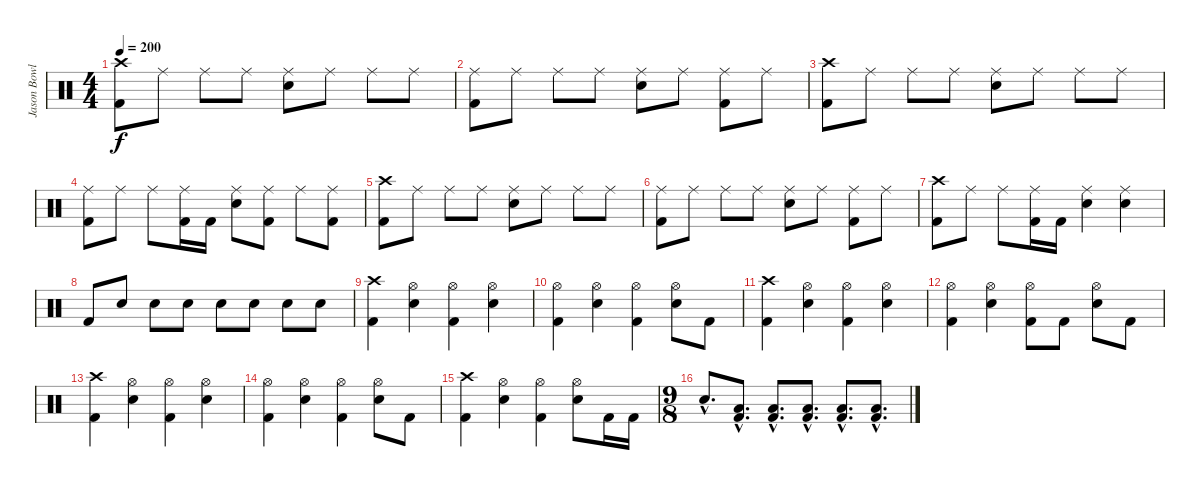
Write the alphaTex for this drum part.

\track ("Jason Bowld" "Jason Bowl") {instrument percussion}
\staff {score}
\articulation defaults
\ts (4 4)
\tempo 200
\clef neutral
\ks c
("Crash high (hit)" "Kick (hit) 2").8{dy f} "Ride (middle)".8 "Ride (middle)".8 "Ride (middle)".8 ("Ride (middle)" "Snare (hit) 2").8 "Ride (middle)".8 "Ride (middle)".8 "Ride (middle)".8 |
("Ride (middle)" "Kick (hit) 2").8 "Ride (middle)".8 "Ride (middle)".8 "Ride (middle)".8 ("Ride (middle)" "Snare (hit) 2").8 "Ride (middle)".8 ("Ride (middle)" "Kick (hit) 2").8 "Ride (middle)".8 |
("Crash high (hit)" "Kick (hit) 2").8 "Ride (middle)".8 "Ride (middle)".8 "Ride (middle)".8 ("Ride (middle)" "Snare (hit) 2").8 "Ride (middle)".8 "Ride (middle)".8 "Ride (middle)".8 |
("Ride (middle)" "Kick (hit) 2").8 "Ride (middle)".8 "Ride (middle)".8 ("Ride (middle)" "Kick (hit) 2").16 "Kick (hit) 2".16 ("Ride (middle)" "Snare (hit) 2").8 ("Ride (middle)" "Kick (hit) 2").8 "Ride (middle)".8 ("Ride (middle)" "Kick (hit) 2").8 |
("Crash high (hit)" "Kick (hit) 2").8 "Ride (middle)".8 "Ride (middle)".8 "Ride (middle)".8 ("Ride (middle)" "Snare (hit) 2").8 "Ride (middle)".8 "Ride (middle)".8 "Ride (middle)".8 |
("Ride (middle)" "Kick (hit) 2").8 "Ride (middle)".8 "Ride (middle)".8 "Ride (middle)".8 ("Ride (middle)" "Snare (hit) 2").8 "Ride (middle)".8 ("Ride (middle)" "Kick (hit) 2").8 "Ride (middle)".8 |
("Crash high (hit)" "Kick (hit) 2").8 "Ride (middle)".8 "Ride (middle)".8 ("Ride (middle)" "Kick (hit) 2").16 "Kick (hit) 2".16 ("Ride (middle)" "Snare (hit) 2").4 ("Ride (middle)" "Snare (hit) 2").4 |
"Kick (hit) 2".8 "Snare (hit) 2".8 "Snare (hit) 2".8 "Snare (hit) 2".8 "Snare (hit) 2".8 "Snare (hit) 2".8 "Snare (hit) 2".8 "Snare (hit) 2".8 |
("Crash high (hit)" "Kick (hit) 2").4 ("Hi-Hat (open)" "Snare (hit) 2").4 ("Hi-Hat (open)" "Kick (hit) 2").4 ("Hi-Hat (open)" "Snare (hit) 2").4 |
("Hi-Hat (open)" "Kick (hit) 2").4 ("Hi-Hat (open)" "Snare (hit) 2").4 ("Hi-Hat (open)" "Kick (hit) 2").4 ("Hi-Hat (open)" "Snare (hit) 2").8 "Kick (hit) 2".8 |
("Crash high (hit)" "Kick (hit) 2").4 ("Hi-Hat (open)" "Snare (hit) 2").4 ("Hi-Hat (open)" "Kick (hit) 2").4 ("Hi-Hat (open)" "Snare (hit) 2").4 |
("Hi-Hat (open)" "Kick (hit) 2").4 ("Hi-Hat (open)" "Snare (hit) 2").4 ("Hi-Hat (open)" "Kick (hit) 2").8 "Kick (hit) 2".8 ("Hi-Hat (open)" "Snare (hit) 2").8 "Kick (hit) 2".8 |
("Crash high (hit)" "Kick (hit) 2").4 ("Hi-Hat (open)" "Snare (hit) 2").4 ("Hi-Hat (open)" "Kick (hit) 2").4 ("Hi-Hat (open)" "Snare (hit) 2").4 |
("Hi-Hat (open)" "Kick (hit) 2").4 ("Hi-Hat (open)" "Snare (hit) 2").4 ("Hi-Hat (open)" "Kick (hit) 2").4 ("Hi-Hat (open)" "Snare (hit) 2").8 "Kick (hit) 2".8 |
("Crash high (hit)" "Kick (hit) 2").4 ("Hi-Hat (open)" "Snare (hit) 2").4 ("Hi-Hat (open)" "Kick (hit) 2").4 ("Hi-Hat (open)" "Snare (hit) 2").8 "Kick (hit) 2".16 "Kick (hit) 2".16 |
\ts (9 8)
"Snare (hit) 2"{hac}.8{d} ("Low Floor Tom (hit)"{hac} "Kick (hit) 2"{hac}).8{d} ("Low Floor Tom (hit)"{hac} "Kick (hit) 2"{hac}).8{d} ("Low Floor Tom (hit)"{hac} "Kick (hit) 2"{hac}).8{d} ("Low Floor Tom (hit)"{hac} "Kick (hit) 2"{hac}).8{d} ("Low Floor Tom (hit)"{hac} "Kick (hit) 2"{hac}).8{d}
